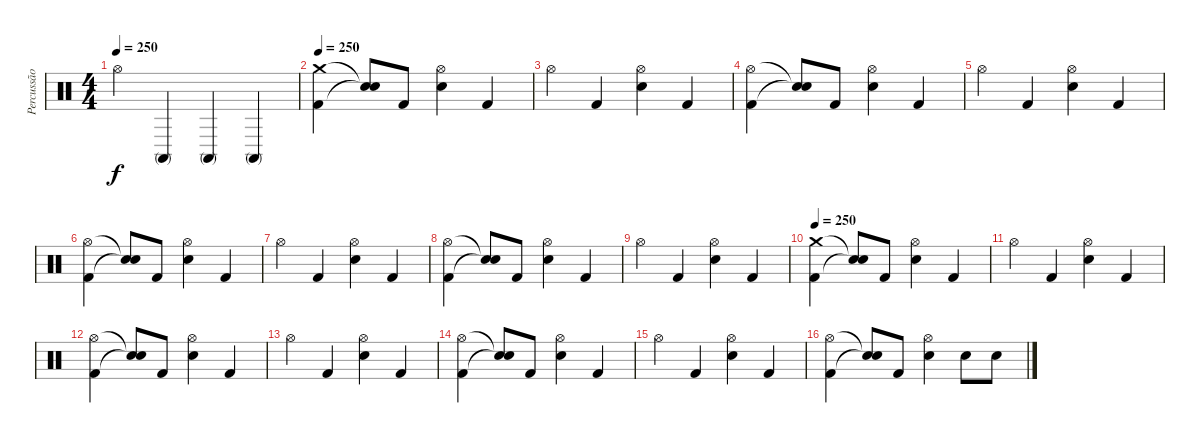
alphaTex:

\track ("Percussão" "Percussão") {instrument percussion}
\staff {score}
\articulation defaults
\ts (4 4)
\tempo 250
\clef neutral
\ks c "Hi-Hat (open)".4{dy f} "Conga high (mute)".4 "Conga high (mute)".4 "Conga high (mute)".4
|
\tempo 250
("Kick (hit) 2" "Crash medium (hit)").4 ("Snare (hit)"{t} "Snare (hit)"{t}).8 "Kick (hit) 2".8 ("Electric Snare (hit)" "Hi-Hat (open)").4 "Kick (hit) 2".4 |
"Hi-Hat (open)".4 "Kick (hit) 2".4 ("Hi-Hat (open)" "Electric Snare (hit)").4 "Kick (hit) 2".4 |
("Kick (hit) 2" "Hi-Hat (open)").4 ("Snare (hit)"{t} "Snare (hit)"{t}).8 "Kick (hit) 2".8 ("Electric Snare (hit)" "Hi-Hat (open)").4 "Kick (hit) 2".4 |
"Hi-Hat (open)".4 "Kick (hit) 2".4 ("Hi-Hat (open)" "Electric Snare (hit)").4 "Kick (hit) 2".4 |
("Kick (hit) 2" "Hi-Hat (open)").4 ("Snare (hit)"{t} "Snare (hit)"{t}).8 "Kick (hit) 2".8 ("Electric Snare (hit)" "Hi-Hat (open)").4 "Kick (hit) 2".4 |
"Hi-Hat (open)".4 "Kick (hit) 2".4 ("Hi-Hat (open)" "Electric Snare (hit)").4 "Kick (hit) 2".4 |
("Kick (hit) 2" "Hi-Hat (open)").4 ("Snare (hit)"{t} "Snare (hit)"{t}).8 "Kick (hit) 2".8 ("Electric Snare (hit)" "Hi-Hat (open)").4 "Kick (hit) 2".4 |
"Hi-Hat (open)".4 "Kick (hit) 2".4 ("Hi-Hat (open)" "Electric Snare (hit)").4 "Kick (hit) 2".4 |
\tempo 250
("Kick (hit) 2" "Crash medium (hit)").4 ("Snare (hit)"{t} "Snare (hit)"{t}).8 "Kick (hit) 2".8 ("Electric Snare (hit)" "Hi-Hat (open)").4 "Kick (hit) 2".4 |
"Hi-Hat (open)".4 "Kick (hit) 2".4 ("Hi-Hat (open)" "Electric Snare (hit)").4 "Kick (hit) 2".4 |
("Kick (hit) 2" "Hi-Hat (open)").4 ("Snare (hit)"{t} "Snare (hit)"{t}).8 "Kick (hit) 2".8 ("Electric Snare (hit)" "Hi-Hat (open)").4 "Kick (hit) 2".4 |
"Hi-Hat (open)".4 "Kick (hit) 2".4 ("Hi-Hat (open)" "Electric Snare (hit)").4 "Kick (hit) 2".4 |
("Kick (hit) 2" "Hi-Hat (open)").4 ("Snare (hit)"{t} "Snare (hit)"{t}).8 "Kick (hit) 2".8 ("Electric Snare (hit)" "Hi-Hat (open)").4 "Kick (hit) 2".4 |
"Hi-Hat (open)".4 "Kick (hit) 2".4 ("Hi-Hat (open)" "Electric Snare (hit)").4 "Kick (hit) 2".4 |
("Kick (hit) 2" "Hi-Hat (open)").4 ("Snare (hit)"{t} "Snare (hit)"{t}).8 "Kick (hit) 2".8 ("Electric Snare (hit)" "Hi-Hat (open)").4 "Electric Snare (hit)".8 "Electric Snare (hit)".8
